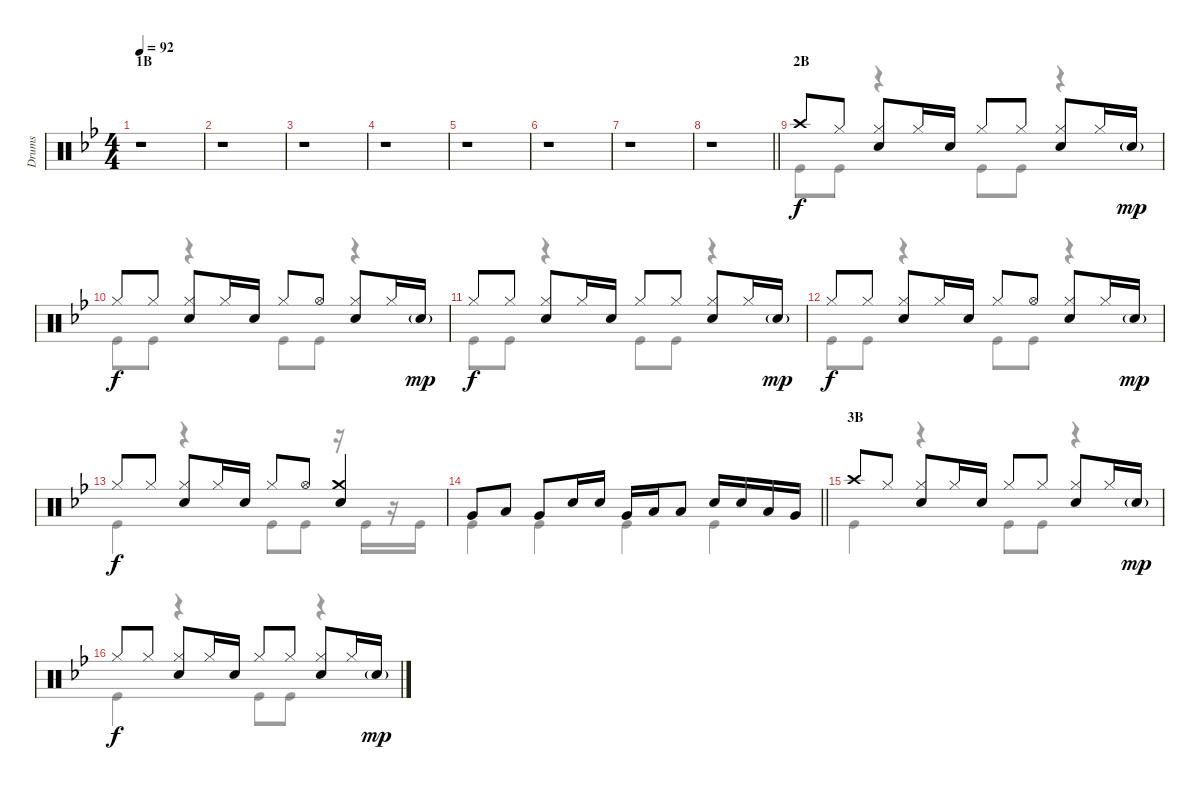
\track ("Drums" "Drums") {instrument percussion}
\staff {score}
\articulation defaults
\voice
\ts (4 4)
\section ("" "1B")
\tempo 92
\clef neutral
\ks bb
r.1{dy f} |
r.1 |
r.1 |
r.1 |
r.1 |
r.1 |
r.1 |
\barLineRight lightlight
r.1 |
\section ("" "2B")
"Crash high (hit)".8 "Hi-Hat (closed)".8 ("Hi-Hat (closed)" "Snare (hit) 2").8 "Hi-Hat (closed)".16 "Snare (hit) 2".16 "Hi-Hat (closed)".8 "Hi-Hat (closed)".8 ("Hi-Hat (closed)" "Snare (hit) 2").8 "Hi-Hat (closed)".16 "Snare (hit) 2"{g}.16{dy mp} |
"Hi-Hat (closed)".8{dy f} "Hi-Hat (closed)".8 ("Hi-Hat (closed)" "Snare (hit) 2").8 "Hi-Hat (closed)".16 "Snare (hit) 2".16 "Hi-Hat (closed)".8 "Hi-Hat (open)".8 ("Hi-Hat (closed)" "Snare (hit) 2").8 "Hi-Hat (closed)".16 "Snare (hit) 2"{g}.16{dy mp} |
"Hi-Hat (closed)".8{dy f} "Hi-Hat (closed)".8 ("Hi-Hat (closed)" "Snare (hit) 2").8 "Hi-Hat (closed)".16 "Snare (hit) 2".16 "Hi-Hat (closed)".8 "Hi-Hat (closed)".8 ("Hi-Hat (closed)" "Snare (hit) 2").8 "Hi-Hat (closed)".16 "Snare (hit) 2"{g}.16{dy mp} |
"Hi-Hat (closed)".8{dy f} "Hi-Hat (closed)".8 ("Hi-Hat (closed)" "Snare (hit) 2").8 "Hi-Hat (closed)".16 "Snare (hit) 2".16 "Hi-Hat (closed)".8 "Hi-Hat (open)".8 ("Hi-Hat (closed)" "Snare (hit) 2").8 "Hi-Hat (closed)".16 "Snare (hit) 2"{g}.16{dy mp} |
"Hi-Hat (closed)".8{dy f} "Hi-Hat (closed)".8 ("Hi-Hat (closed)" "Snare (hit) 2").8 "Hi-Hat (closed)".16 "Snare (hit) 2".16 "Hi-Hat (closed)".8 "Hi-Hat (open)".8 ("Crash medium (hit)" "Snare (hit) 2").4 |
\barLineRight lightlight "Very Low Tom (hit)".8 "Low Tom (hit)".8 "Very Low Tom (hit)".8 "Snare (hit) 2".16 "Snare (hit) 2".16 "Very Low Tom (hit)".16 "Low Tom (hit)".16 "Low Tom (hit)".8 "Snare (hit) 2".16 "Snare (hit) 2".16 "Low Tom (hit)".16 "Very Low Tom (hit)".16
|
\section ("" "3B")
"Crash high (hit)".8 "Hi-Hat (closed)".8 ("Hi-Hat (closed)" "Snare (hit) 2").8 "Hi-Hat (closed)".16 "Snare (hit) 2".16 "Hi-Hat (closed)".8 "Hi-Hat (closed)".8 ("Hi-Hat (closed)" "Snare (hit) 2").8 "Hi-Hat (closed)".16 "Snare (hit) 2"{g}.16{dy mp} |
"Hi-Hat (closed)".8{dy f} "Hi-Hat (closed)".8 ("Hi-Hat (closed)" "Snare (hit) 2").8 "Hi-Hat (closed)".16 "Snare (hit) 2".16 "Hi-Hat (closed)".8 "Hi-Hat (closed)".8 ("Hi-Hat (closed)" "Snare (hit) 2").8 "Hi-Hat (closed)".16 "Snare (hit) 2"{g}.16{dy mp}
\voice
\clef neutral
\ottava regular
\simile none
\ks bb
r.1{dy f} |
r.1 |
r.1 |
r.1 |
r.1 |
r.1 |
r.1 |
\barLineRight lightlight
r.1 |
"Kick (hit)".8 "Kick (hit)".8 r.4 "Kick (hit)".8 "Kick (hit)".8 r.4 |
"Kick (hit)".8 "Kick (hit)".8 r.4 "Kick (hit)".8 "Kick (hit)".8 r.4 |
"Kick (hit)".8 "Kick (hit)".8 r.4 "Kick (hit)".8 "Kick (hit)".8 r.4 |
"Kick (hit)".8 "Kick (hit)".8 r.4 "Kick (hit)".8 "Kick (hit)".8 r.4 |
"Kick (hit)".4 r.4 "Kick (hit)".8 "Kick (hit)".8 r.16 "Kick (hit)".16 r.16 "Kick (hit)".16 |
\barLineRight lightlight "Kick (hit)".4 "Kick (hit)".4 "Kick (hit)".4 "Kick (hit)".4
|
"Kick (hit)".4 r.4 "Kick (hit)".8 "Kick (hit)".8 r.4 |
"Kick (hit)".4 r.4 "Kick (hit)".8 "Kick (hit)".8 r.4
